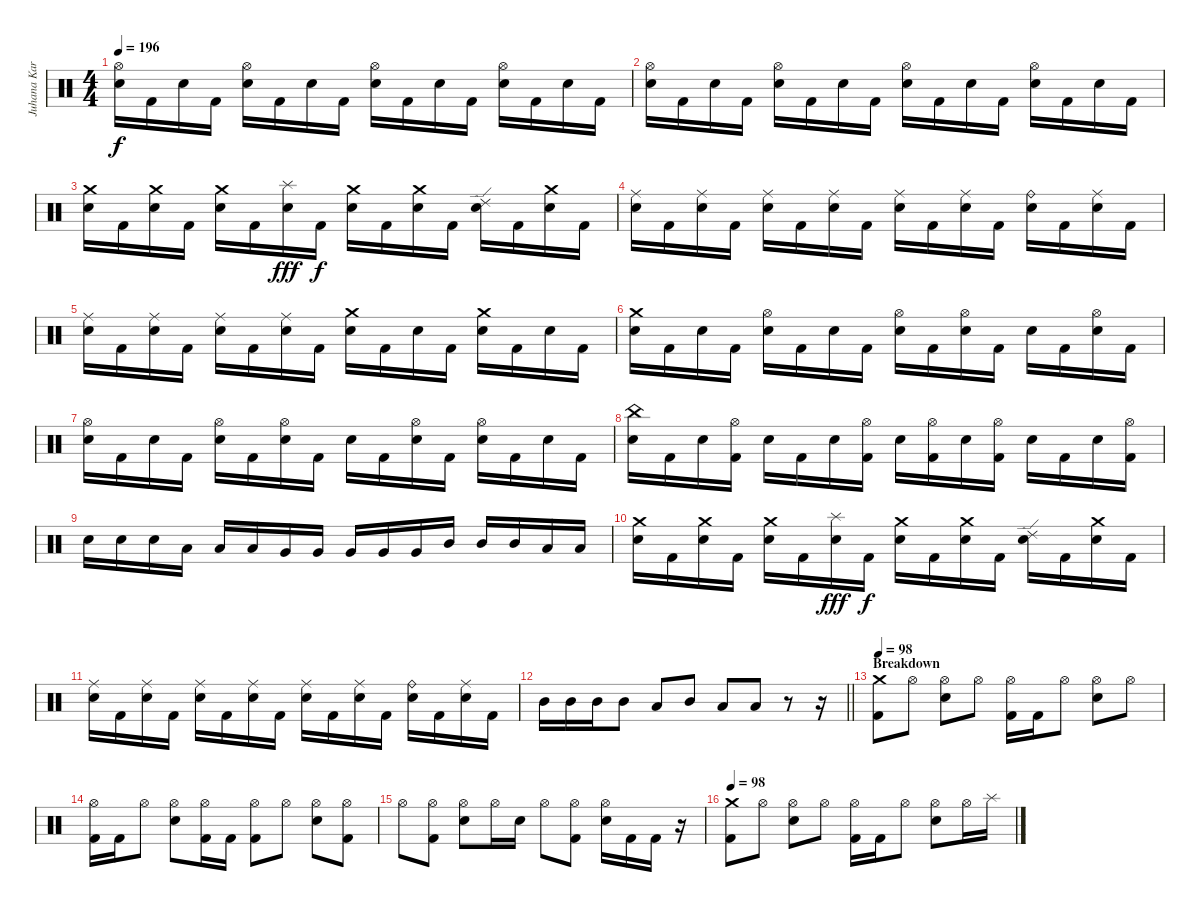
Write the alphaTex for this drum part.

\track ("Juhana Karlsson " "Juhana Kar") {instrument percussion}
\staff {score}
\articulation defaults
\ts (4 4)
\tempo 196
\clef neutral
\ks c
("Hi-Hat (open)" "Electric Snare (hit)").16{dy f} "Kick (hit) 2".16 "Electric Snare (hit)".16 "Kick (hit) 2".16 ("Hi-Hat (open)" "Electric Snare (hit)").16 "Kick (hit) 2".16 "Electric Snare (hit)".16 "Kick (hit) 2".16 ("Hi-Hat (open)" "Electric Snare (hit)").16 "Kick (hit) 2".16 "Electric Snare (hit)".16 "Kick (hit) 2".16 ("Hi-Hat (open)" "Electric Snare (hit)").16 "Kick (hit) 2".16 "Electric Snare (hit)".16 "Kick (hit) 2".16 |
("Hi-Hat (open)" "Electric Snare (hit)").16 "Kick (hit) 2".16 "Electric Snare (hit)".16 "Kick (hit) 2".16 ("Hi-Hat (open)" "Electric Snare (hit)").16 "Kick (hit) 2".16 "Electric Snare (hit)".16 "Kick (hit) 2".16 ("Hi-Hat (open)" "Electric Snare (hit)").16 "Kick (hit) 2".16 "Electric Snare (hit)".16 "Kick (hit) 2".16 ("Hi-Hat (open)" "Electric Snare (hit)").16 "Kick (hit) 2".16 "Electric Snare (hit)".16 "Kick (hit) 2".16 |
("Crash medium (hit)" "Electric Snare (hit)").16 "Kick (hit) 2".16 ("Crash medium (hit)" "Electric Snare (hit)").16 "Kick (hit) 2".16 ("Crash medium (hit)" "Electric Snare (hit)").16 "Kick (hit) 2".16 ("Splash (hit)" "Electric Snare (hit)").16{dy fff} "Kick (hit) 2".16{dy f} ("Crash medium (hit)" "Electric Snare (hit)").16 "Kick (hit) 2".16 ("Crash medium (hit)" "Electric Snare (hit)").16 "Kick (hit) 2".16 ("Ride (edge) 2" "Electric Snare (hit)").16 "Kick (hit) 2".16 ("Crash medium (hit)" "Electric Snare (hit)").16 "Kick (hit) 2".16 |
("Ride (middle)" "Electric Snare (hit)").16 "Kick (hit) 2".16 ("Ride (middle)" "Electric Snare (hit)").16 "Kick (hit) 2".16 ("Ride (middle)" "Electric Snare (hit)").16 "Kick (hit) 2".16 ("Ride (middle)" "Electric Snare (hit)").16 "Kick (hit) 2".16 ("Ride (middle)" "Electric Snare (hit)").16 "Kick (hit) 2".16 ("Ride (middle)" "Electric Snare (hit)").16 "Kick (hit) 2".16 ("Ride (bell)" "Electric Snare (hit)").16 "Kick (hit) 2".16 ("Ride (middle)" "Electric Snare (hit)").16 "Kick (hit) 2".16 |
("Ride (middle)" "Electric Snare (hit)").16 "Kick (hit) 2".16 ("Ride (middle)" "Electric Snare (hit)").16 "Kick (hit) 2".16 ("Ride (middle)" "Electric Snare (hit)").16 "Kick (hit) 2".16 ("Ride (middle)" "Electric Snare (hit)").16 "Kick (hit) 2".16 ("Crash medium (hit)" "Electric Snare (hit)").16 "Kick (hit) 2".16 "Electric Snare (hit)".16 "Kick (hit) 2".16 ("Crash medium (hit)" "Electric Snare (hit)").16 "Kick (hit) 2".16 "Electric Snare (hit)".16 "Kick (hit) 2".16 |
("Crash medium (hit)" "Electric Snare (hit)").16 "Kick (hit) 2".16 "Electric Snare (hit)".16 "Kick (hit) 2".16 ("Hi-Hat (open)" "Electric Snare (hit)").16 "Kick (hit) 2".16 "Electric Snare (hit)".16 "Kick (hit) 2".16 ("Hi-Hat (open)" "Electric Snare (hit)").16 "Kick (hit) 2".16 ("Hi-Hat (open)" "Electric Snare (hit)").16 "Kick (hit) 2".16 "Electric Snare (hit)".16 "Kick (hit) 2".16 ("Hi-Hat (open)" "Electric Snare (hit)").16 "Kick (hit) 2".16 |
("Hi-Hat (open)" "Electric Snare (hit)").16 "Kick (hit) 2".16 "Electric Snare (hit)".16 "Kick (hit) 2".16 ("Hi-Hat (open)" "Electric Snare (hit)").16 "Kick (hit) 2".16 ("Hi-Hat (open)" "Electric Snare (hit)").16 "Kick (hit) 2".16 "Electric Snare (hit)".16 "Kick (hit) 2".16 ("Hi-Hat (open)" "Electric Snare (hit)").16 "Kick (hit) 2".16 ("Hi-Hat (open)" "Electric Snare (hit)").16 "Kick (hit) 2".16 "Electric Snare (hit)".16 "Kick (hit) 2".16 |
("China (hit)" "Electric Snare (hit)").16 "Kick (hit) 2".16 "Electric Snare (hit)".16 ("Hi-Hat (open)" "Kick (hit) 2").16 "Electric Snare (hit)".16 "Kick (hit) 2".16 "Electric Snare (hit)".16 ("Hi-Hat (open)" "Kick (hit) 2").16 "Electric Snare (hit)".16 ("Hi-Hat (open)" "Kick (hit) 2").16 "Electric Snare (hit)".16 ("Hi-Hat (open)" "Kick (hit) 2").16 "Electric Snare (hit)".16 "Kick (hit) 2".16 "Electric Snare (hit)".16 ("Hi-Hat (open)" "Kick (hit) 2").16 |
"Electric Snare (hit)".16 "Electric Snare (hit)".16 "Electric Snare (hit)".16 "Low Tom (hit)".16 "Low Tom (hit)".16 "Low Tom (hit)".16 "Very Low Tom (hit)".16 "Very Low Tom (hit)".16 "Very Low Tom (hit)".16 "Very Low Tom (hit)".16 "Very Low Tom (hit)".16 "Mid Tom (hit)".16 "Mid Tom (hit)".16 "Mid Tom (hit)".16 "Low Tom (hit)".16 "Low Tom (hit)".16 |
("Crash medium (hit)" "Electric Snare (hit)").16 "Kick (hit) 2".16 ("Crash medium (hit)" "Electric Snare (hit)").16 "Kick (hit) 2".16 ("Crash medium (hit)" "Electric Snare (hit)").16 "Kick (hit) 2".16 ("Splash (hit)" "Electric Snare (hit)").16{dy fff} "Kick (hit) 2".16{dy f} ("Crash medium (hit)" "Electric Snare (hit)").16 "Kick (hit) 2".16 ("Crash medium (hit)" "Electric Snare (hit)").16 "Kick (hit) 2".16 ("Ride (edge) 2" "Electric Snare (hit)").16 "Kick (hit) 2".16 ("Crash medium (hit)" "Electric Snare (hit)").16 "Kick (hit) 2".16 |
("Ride (middle)" "Electric Snare (hit)").16 "Kick (hit) 2".16 ("Ride (middle)" "Electric Snare (hit)").16 "Kick (hit) 2".16 ("Ride (middle)" "Electric Snare (hit)").16 "Kick (hit) 2".16 ("Ride (middle)" "Electric Snare (hit)").16 "Kick (hit) 2".16 ("Ride (middle)" "Electric Snare (hit)").16 "Kick (hit) 2".16 ("Ride (middle)" "Electric Snare (hit)").16 "Kick (hit) 2".16 ("Ride (bell)" "Electric Snare (hit)").16 "Kick (hit) 2".16 ("Ride (middle)" "Electric Snare (hit)").16 "Kick (hit) 2".16 |
\barLineRight lightlight "Mid Tom (hit)".16 "Mid Tom (hit)".16 "Mid Tom (hit)".16 "Mid Tom (hit)".8 "Low Tom (hit)".8 "Mid Tom (hit)".8 "Low Tom (hit)".8 "Low Tom (hit)".8
r.8 r.16 |
\section ("" "Breakdown")
\tempo 98
("Crash medium (hit)" "Kick (hit) 2").8 "Hi-Hat (open)".8 ("Hi-Hat (open)" "Electric Snare (hit)").8 "Hi-Hat (open)".8 ("Hi-Hat (open)" "Kick (hit) 2").16 "Kick (hit) 2".16 "Hi-Hat (open)".8 ("Hi-Hat (open)" "Electric Snare (hit)").8 "Hi-Hat (open)".8 |
("Hi-Hat (open)" "Kick (hit) 2").16 "Kick (hit) 2".16 "Hi-Hat (open)".8 ("Hi-Hat (open)" "Electric Snare (hit)").8 ("Hi-Hat (open)" "Kick (hit) 2").16 "Kick (hit) 2".16 ("Hi-Hat (open)" "Kick (hit) 2").8 "Hi-Hat (open)".8 ("Hi-Hat (open)" "Electric Snare (hit)").8 ("Hi-Hat (open)" "Kick (hit) 2").8 |
"Hi-Hat (open)".8 ("Hi-Hat (open)" "Kick (hit) 2").8 ("Hi-Hat (open)" "Electric Snare (hit)").8 "Hi-Hat (open)".16 "Electric Snare (hit)".16 "Hi-Hat (open)".8 ("Hi-Hat (open)" "Kick (hit) 2").8 ("Hi-Hat (open)" "Electric Snare (hit)").16 "Kick (hit) 2".16 "Kick (hit) 2".16 r.16 |
\tempo 98
("Crash medium (hit)" "Kick (hit) 2").8 "Hi-Hat (open)".8 ("Hi-Hat (open)" "Electric Snare (hit)").8 "Hi-Hat (open)".8 ("Hi-Hat (open)" "Kick (hit) 2").16 "Kick (hit) 2".16 "Hi-Hat (open)".8 ("Hi-Hat (open)" "Electric Snare (hit)").8 "Hi-Hat (open)".16 "Splash (hit)".16
